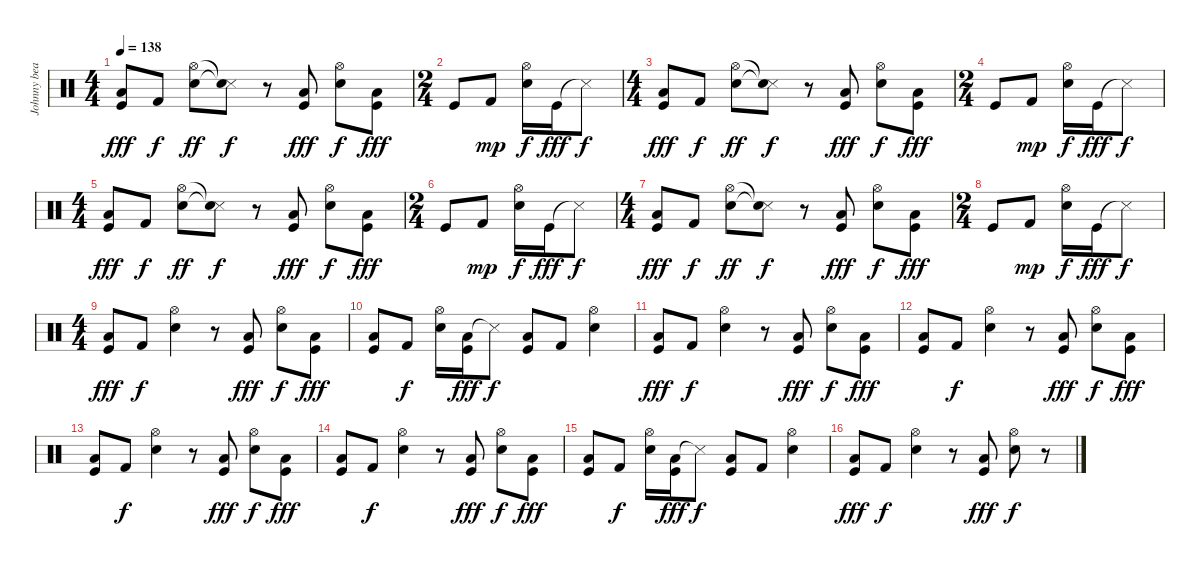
\track ("Johnny beat" "Johnny bea") {instrument percussion}
\staff {score}
\articulation defaults
\ts (4 4)
\tempo 138
\clef neutral
\ks c
("Low Tom (hit)" "Kick (hit)").8{dy fff} "Kick (hit) 2".8{dy f} ("Electric Snare (hit)" "Hi-Hat (open)").8{dy ff} ("Snare (side stick) 3"{t} "Snare (hit)"{t}).8{dy f} r.8 ("Low Tom (hit)" "Kick (hit)").8{dy fff} ("Electric Snare (hit)" "Hi-Hat (open)").8{dy f} ("Low Tom (hit)" "Kick (hit)").8{dy fff} |
\ts (2 4)
"Kick (hit)".8 "Kick (hit) 2".8{dy mp} ("Electric Snare (hit)" "Hi-Hat (open)").16{dy f} "Kick (hit)".16{dy fff} "Snare (side stick) 3"{t}.8{dy f} |
\ts (4 4)
("Low Tom (hit)" "Kick (hit)").8{dy fff} "Kick (hit) 2".8{dy f} ("Electric Snare (hit)" "Hi-Hat (open)").8{dy ff} ("Snare (side stick) 3"{t} "Snare (hit)"{t}).8{dy f} r.8 ("Low Tom (hit)" "Kick (hit)").8{dy fff} ("Electric Snare (hit)" "Hi-Hat (open)").8{dy f} ("Low Tom (hit)" "Kick (hit)").8{dy fff} |
\ts (2 4)
"Kick (hit)".8 "Kick (hit) 2".8{dy mp} ("Electric Snare (hit)" "Hi-Hat (open)").16{dy f} "Kick (hit)".16{dy fff} "Snare (side stick) 3"{t}.8{dy f} |
\ts (4 4)
("Low Tom (hit)" "Kick (hit)").8{dy fff} "Kick (hit) 2".8{dy f} ("Electric Snare (hit)" "Hi-Hat (open)").8{dy ff} ("Snare (side stick) 3"{t} "Snare (hit)"{t}).8{dy f} r.8 ("Low Tom (hit)" "Kick (hit)").8{dy fff} ("Electric Snare (hit)" "Hi-Hat (open)").8{dy f} ("Low Tom (hit)" "Kick (hit)").8{dy fff} |
\ts (2 4)
"Kick (hit)".8 "Kick (hit) 2".8{dy mp} ("Electric Snare (hit)" "Hi-Hat (open)").16{dy f} "Kick (hit)".16{dy fff} "Snare (side stick) 3"{t}.8{dy f} |
\ts (4 4)
("Low Tom (hit)" "Kick (hit)").8{dy fff} "Kick (hit) 2".8{dy f} ("Electric Snare (hit)" "Hi-Hat (open)").8{dy ff} ("Snare (side stick) 3"{t} "Snare (hit)"{t}).8{dy f} r.8 ("Low Tom (hit)" "Kick (hit)").8{dy fff} ("Electric Snare (hit)" "Hi-Hat (open)").8{dy f} ("Low Tom (hit)" "Kick (hit)").8{dy fff} |
\ts (2 4)
"Kick (hit)".8 "Kick (hit) 2".8{dy mp} ("Electric Snare (hit)" "Hi-Hat (open)").16{dy f} "Kick (hit)".16{dy fff} "Snare (side stick) 3"{t}.8{dy f} |
\ts (4 4)
("Low Tom (hit)" "Kick (hit)").8{dy fff} "Kick (hit) 2".8{dy f} ("Electric Snare (hit)" "Hi-Hat (open)").4 r.8 ("Low Tom (hit)" "Kick (hit)").8{dy fff} ("Electric Snare (hit)" "Hi-Hat (open)").8{dy f} ("Low Tom (hit)" "Kick (hit)").8{dy fff} |
("Low Tom (hit)" "Kick (hit)").8 "Kick (hit) 2".8{dy f} ("Electric Snare (hit)" "Hi-Hat (open)").16 ("Low Tom (hit)" "Kick (hit)").16{dy fff} "Snare (side stick) 3"{t}.8{dy f} ("Kick (hit)" "Low Tom (hit)").8 "Kick (hit) 2".8 ("Electric Snare (hit)" "Hi-Hat (open)").4 |
("Low Tom (hit)" "Kick (hit)").8{dy fff} "Kick (hit) 2".8{dy f} ("Electric Snare (hit)" "Hi-Hat (open)").4 r.8 ("Low Tom (hit)" "Kick (hit)").8{dy fff} ("Electric Snare (hit)" "Hi-Hat (open)").8{dy f} ("Low Tom (hit)" "Kick (hit)").8{dy fff} |
("Low Tom (hit)" "Kick (hit)").8 "Kick (hit) 2".8{dy f} ("Electric Snare (hit)" "Hi-Hat (open)").4 r.8 ("Low Tom (hit)" "Kick (hit)").8{dy fff} ("Electric Snare (hit)" "Hi-Hat (open)").8{dy f} ("Low Tom (hit)" "Kick (hit)").8{dy fff} |
("Low Tom (hit)" "Kick (hit)").8 "Kick (hit) 2".8{dy f} ("Electric Snare (hit)" "Hi-Hat (open)").4 r.8 ("Low Tom (hit)" "Kick (hit)").8{dy fff} ("Electric Snare (hit)" "Hi-Hat (open)").8{dy f} ("Low Tom (hit)" "Kick (hit)").8{dy fff} |
("Low Tom (hit)" "Kick (hit)").8 "Kick (hit) 2".8{dy f} ("Electric Snare (hit)" "Hi-Hat (open)").4 r.8 ("Low Tom (hit)" "Kick (hit)").8{dy fff} ("Electric Snare (hit)" "Hi-Hat (open)").8{dy f} ("Low Tom (hit)" "Kick (hit)").8{dy fff} |
("Low Tom (hit)" "Kick (hit)").8 "Kick (hit) 2".8{dy f} ("Electric Snare (hit)" "Hi-Hat (open)").16 ("Low Tom (hit)" "Kick (hit)").16{dy fff} "Snare (side stick) 3"{t}.8{dy f} ("Kick (hit)" "Low Tom (hit)").8 "Kick (hit) 2".8 ("Electric Snare (hit)" "Hi-Hat (open)").4 |
("Low Tom (hit)" "Kick (hit)").8{dy fff} "Kick (hit) 2".8{dy f} ("Electric Snare (hit)" "Hi-Hat (open)").4 r.8 ("Low Tom (hit)" "Kick (hit)").8{dy fff} ("Electric Snare (hit)" "Hi-Hat (open)").8{dy f} r.8
